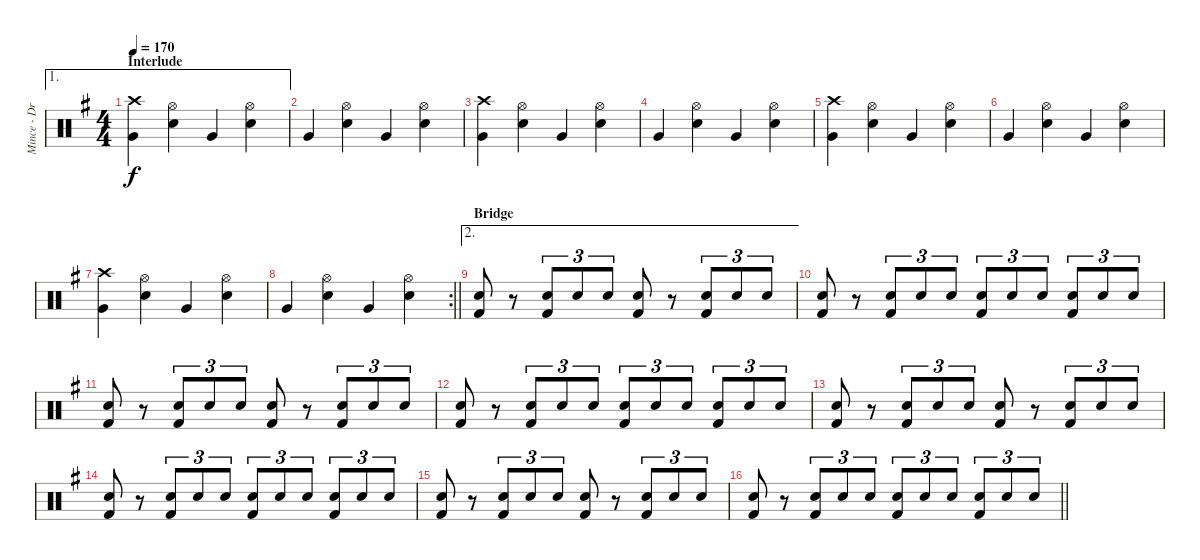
\track ("Mince - Drums" "Mince - Dr") {instrument percussion}
\staff {score}
\articulation defaults
\ae 1
\ts (4 4)
\section ("" "Interlude")
\tempo 170
\clef neutral
\ks g
("Crash high (hit)" "Very Low Tom (hit)").4{dy f} ("Snare (hit) 2" "Hi-Hat (open)").4 "Very Low Tom (hit)".4 ("Snare (hit) 2" "Hi-Hat (open)").4 |
"Very Low Tom (hit)".4 ("Snare (hit) 2" "Hi-Hat (open)").4 "Very Low Tom (hit)".4 ("Snare (hit) 2" "Hi-Hat (open)").4 |
("Crash high (hit)" "Very Low Tom (hit)").4 ("Snare (hit) 2" "Hi-Hat (open)").4 "Very Low Tom (hit)".4 ("Snare (hit) 2" "Hi-Hat (open)").4 |
"Very Low Tom (hit)".4 ("Snare (hit) 2" "Hi-Hat (open)").4 "Very Low Tom (hit)".4 ("Snare (hit) 2" "Hi-Hat (open)").4 |
("Crash high (hit)" "Very Low Tom (hit)").4 ("Snare (hit) 2" "Hi-Hat (open)").4 "Very Low Tom (hit)".4 ("Snare (hit) 2" "Hi-Hat (open)").4 |
"Very Low Tom (hit)".4 ("Snare (hit) 2" "Hi-Hat (open)").4 "Very Low Tom (hit)".4 ("Snare (hit) 2" "Hi-Hat (open)").4 |
("Crash high (hit)" "Very Low Tom (hit)").4 ("Snare (hit) 2" "Hi-Hat (open)").4 "Very Low Tom (hit)".4 ("Snare (hit) 2" "Hi-Hat (open)").4 |
\rc 2
\barLineRight lightlight "Very Low Tom (hit)".4
("Snare (hit) 2" "Hi-Hat (open)").4 "Very Low Tom (hit)".4 ("Snare (hit) 2" "Hi-Hat (open)").4 |
\ae 2
\section ("" "Bridge")
("Kick (hit) 2" "Snare (hit) 2").8 r.8 ("Kick (hit) 2" "Snare (hit) 2").8{tu (3 2)} "Snare (hit) 2".8{tu (3 2)} "Snare (hit) 2".8{tu (3 2)} ("Kick (hit) 2" "Snare (hit) 2").8 r.8 ("Kick (hit) 2" "Snare (hit) 2").8{tu (3 2)} "Snare (hit) 2".8{tu (3 2)} "Snare (hit) 2".8{tu (3 2)} |
("Kick (hit) 2" "Snare (hit) 2").8 r.8 ("Kick (hit) 2" "Snare (hit) 2").8{tu (3 2)} "Snare (hit) 2".8{tu (3 2)} "Snare (hit) 2".8{tu (3 2)} ("Kick (hit) 2" "Snare (hit) 2").8{tu (3 2)} "Snare (hit) 2".8{tu (3 2)} "Snare (hit) 2".8{tu (3 2)} ("Kick (hit) 2" "Snare (hit) 2").8{tu (3 2)} "Snare (hit) 2".8{tu (3 2)} "Snare (hit) 2".8{tu (3 2)} |
("Kick (hit) 2" "Snare (hit) 2").8 r.8 ("Kick (hit) 2" "Snare (hit) 2").8{tu (3 2)} "Snare (hit) 2".8{tu (3 2)} "Snare (hit) 2".8{tu (3 2)} ("Kick (hit) 2" "Snare (hit) 2").8 r.8 ("Kick (hit) 2" "Snare (hit) 2").8{tu (3 2)} "Snare (hit) 2".8{tu (3 2)} "Snare (hit) 2".8{tu (3 2)} |
("Kick (hit) 2" "Snare (hit) 2").8 r.8 ("Kick (hit) 2" "Snare (hit) 2").8{tu (3 2)} "Snare (hit) 2".8{tu (3 2)} "Snare (hit) 2".8{tu (3 2)} ("Kick (hit) 2" "Snare (hit) 2").8{tu (3 2)} "Snare (hit) 2".8{tu (3 2)} "Snare (hit) 2".8{tu (3 2)} ("Kick (hit) 2" "Snare (hit) 2").8{tu (3 2)} "Snare (hit) 2".8{tu (3 2)} "Snare (hit) 2".8{tu (3 2)} |
("Kick (hit) 2" "Snare (hit) 2").8 r.8 ("Kick (hit) 2" "Snare (hit) 2").8{tu (3 2)} "Snare (hit) 2".8{tu (3 2)} "Snare (hit) 2".8{tu (3 2)} ("Kick (hit) 2" "Snare (hit) 2").8 r.8 ("Kick (hit) 2" "Snare (hit) 2").8{tu (3 2)} "Snare (hit) 2".8{tu (3 2)} "Snare (hit) 2".8{tu (3 2)} |
("Kick (hit) 2" "Snare (hit) 2").8 r.8 ("Kick (hit) 2" "Snare (hit) 2").8{tu (3 2)} "Snare (hit) 2".8{tu (3 2)} "Snare (hit) 2".8{tu (3 2)} ("Kick (hit) 2" "Snare (hit) 2").8{tu (3 2)} "Snare (hit) 2".8{tu (3 2)} "Snare (hit) 2".8{tu (3 2)} ("Kick (hit) 2" "Snare (hit) 2").8{tu (3 2)} "Snare (hit) 2".8{tu (3 2)} "Snare (hit) 2".8{tu (3 2)} |
("Kick (hit) 2" "Snare (hit) 2").8 r.8 ("Kick (hit) 2" "Snare (hit) 2").8{tu (3 2)} "Snare (hit) 2".8{tu (3 2)} "Snare (hit) 2".8{tu (3 2)} ("Kick (hit) 2" "Snare (hit) 2").8 r.8 ("Kick (hit) 2" "Snare (hit) 2").8{tu (3 2)} "Snare (hit) 2".8{tu (3 2)} "Snare (hit) 2".8{tu (3 2)} |
\barLineRight lightlight
("Kick (hit) 2" "Snare (hit) 2").8 r.8 ("Kick (hit) 2" "Snare (hit) 2").8{tu (3 2)} "Snare (hit) 2".8{tu (3 2)} "Snare (hit) 2".8{tu (3 2)} ("Kick (hit) 2" "Snare (hit) 2").8{tu (3 2)} "Snare (hit) 2".8{tu (3 2)} "Snare (hit) 2".8{tu (3 2)} ("Kick (hit) 2" "Snare (hit) 2").8{tu (3 2)} "Snare (hit) 2".8{tu (3 2)} "Snare (hit) 2".8{tu (3 2)}
